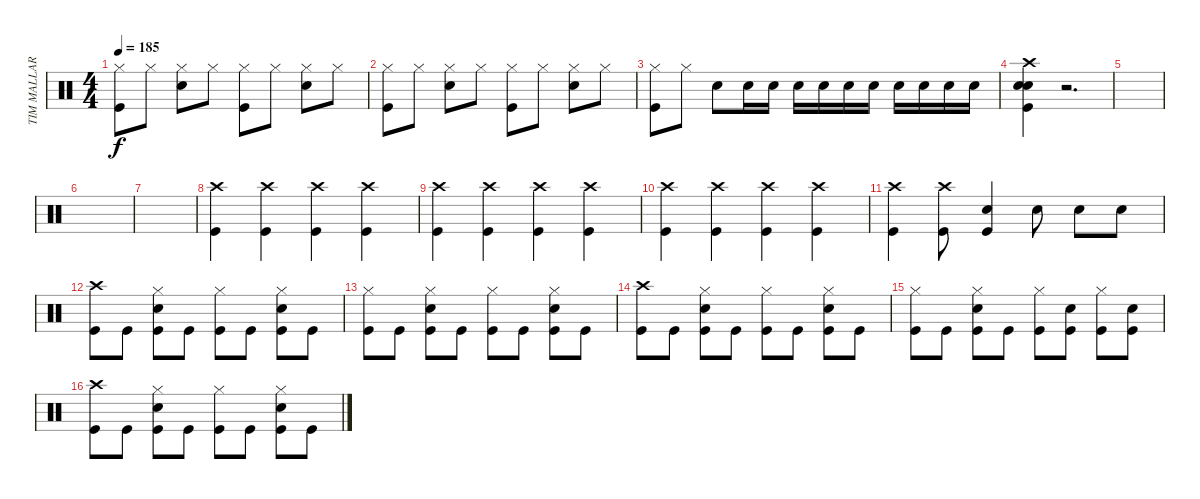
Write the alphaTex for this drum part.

\track ("TIM MALLARE - drums" "TIM MALLAR") {instrument percussion}
\staff {score}
\articulation defaults
\ts (4 4)
\tempo 185
\clef neutral
\ks c
("Hi-Hat (closed)" "Kick (hit)").8{dy f} "Hi-Hat (closed)".8 ("Hi-Hat (closed)" "Electric Snare (hit)").8 "Hi-Hat (closed)".8 ("Hi-Hat (closed)" "Kick (hit)").8 "Hi-Hat (closed)".8 ("Hi-Hat (closed)" "Electric Snare (hit)").8 "Hi-Hat (closed)".8 |
("Hi-Hat (closed)" "Kick (hit)").8 "Hi-Hat (closed)".8 ("Hi-Hat (closed)" "Electric Snare (hit)").8 "Hi-Hat (closed)".8 ("Hi-Hat (closed)" "Kick (hit)").8 "Hi-Hat (closed)".8 ("Hi-Hat (closed)" "Electric Snare (hit)").8 "Hi-Hat (closed)".8 |
("Hi-Hat (closed)" "Kick (hit)").8 "Hi-Hat (closed)".8 "Electric Snare (hit)".8 "Electric Snare (hit)".16 "Electric Snare (hit)".16 "Electric Snare (hit)".16 "Electric Snare (hit)".16 "Electric Snare (hit)".16 "Electric Snare (hit)".16 "Electric Snare (hit)".16 "Electric Snare (hit)".16 "Electric Snare (hit)".16 "Electric Snare (hit)".16 |
("Crash high (hit)" "Electric Snare (hit)" "Electric Snare (hit)" "Kick (hit)").4 r.2{d} |
|
|
|
("Crash high (hit)" "Kick (hit)").4 ("Crash high (hit)" "Kick (hit)").4 ("Crash high (hit)" "Kick (hit)").4 ("Crash high (hit)" "Kick (hit)").4 |
("Crash high (hit)" "Kick (hit)").4 ("Crash high (hit)" "Kick (hit)").4 ("Crash high (hit)" "Kick (hit)").4 ("Crash high (hit)" "Kick (hit)").4 |
("Crash high (hit)" "Kick (hit)").4 ("Crash high (hit)" "Kick (hit)").4 ("Crash high (hit)" "Kick (hit)").4 ("Crash high (hit)" "Kick (hit)").4 |
("Crash high (hit)" "Kick (hit)").4 ("Crash high (hit)" "Kick (hit)").8 ("Electric Snare (hit)" "Kick (hit)").4 "Electric Snare (hit)".8 "Electric Snare (hit)".8 "Electric Snare (hit)".8 |
("Crash high (hit)" "Kick (hit)").8 "Kick (hit)".8 ("Hi-Hat (closed)" "Electric Snare (hit)" "Kick (hit)").8 "Kick (hit)".8 ("Hi-Hat (closed)" "Kick (hit)").8 "Kick (hit)".8 ("Hi-Hat (closed)" "Electric Snare (hit)" "Kick (hit)").8 "Kick (hit)".8 |
("Hi-Hat (closed)" "Kick (hit)").8 "Kick (hit)".8 ("Hi-Hat (closed)" "Electric Snare (hit)" "Kick (hit)").8 "Kick (hit)".8 ("Hi-Hat (closed)" "Kick (hit)").8 "Kick (hit)".8 ("Hi-Hat (closed)" "Electric Snare (hit)" "Kick (hit)").8 "Kick (hit)".8 |
("Crash high (hit)" "Kick (hit)").8 "Kick (hit)".8 ("Hi-Hat (closed)" "Electric Snare (hit)" "Kick (hit)").8 "Kick (hit)".8 ("Hi-Hat (closed)" "Kick (hit)").8 "Kick (hit)".8 ("Hi-Hat (closed)" "Electric Snare (hit)" "Kick (hit)").8 "Kick (hit)".8 |
("Hi-Hat (closed)" "Kick (hit)").8 "Kick (hit)".8 ("Hi-Hat (closed)" "Electric Snare (hit)" "Kick (hit)").8 "Kick (hit)".8 ("Hi-Hat (closed)" "Kick (hit)").8 ("Electric Snare (hit)" "Kick (hit)").8 ("Hi-Hat (closed)" "Kick (hit)").8 ("Electric Snare (hit)" "Kick (hit)").8 |
("Crash high (hit)" "Kick (hit)").8 "Kick (hit)".8 ("Hi-Hat (closed)" "Electric Snare (hit)" "Kick (hit)").8 "Kick (hit)".8 ("Hi-Hat (closed)" "Kick (hit)").8 "Kick (hit)".8 ("Hi-Hat (closed)" "Electric Snare (hit)" "Kick (hit)").8 "Kick (hit)".8
